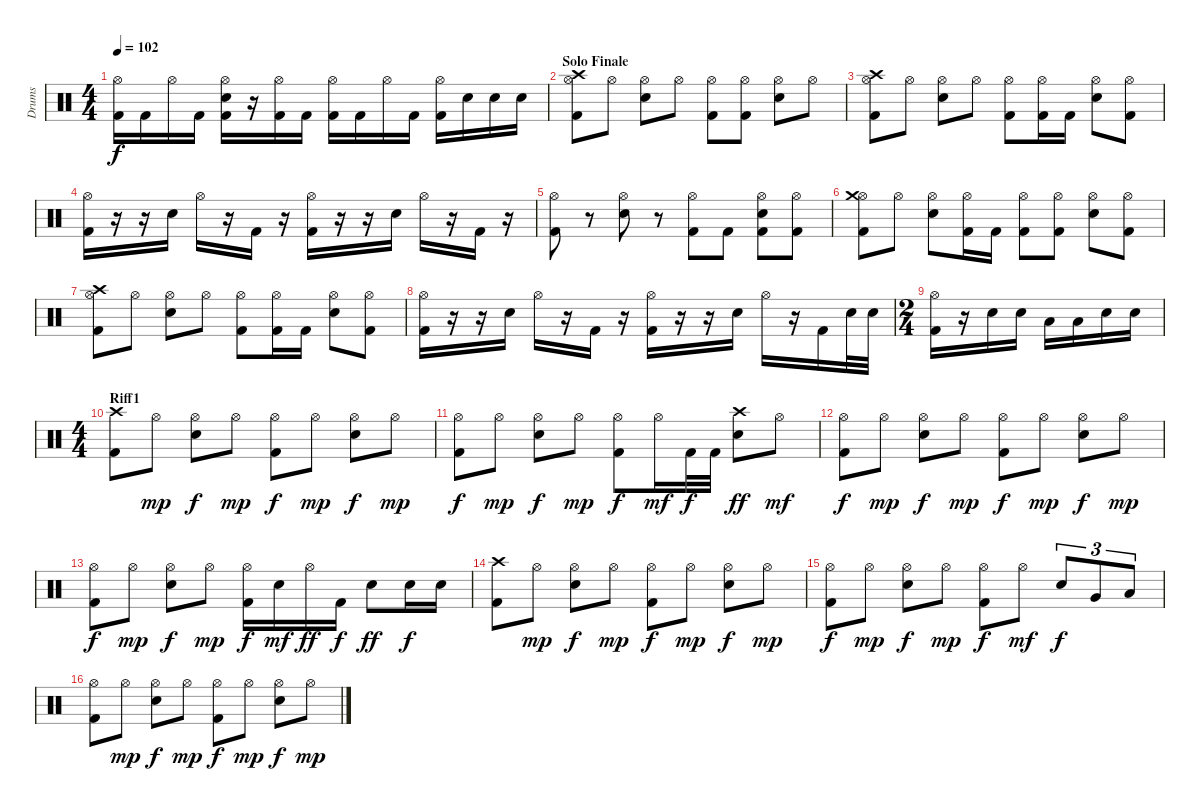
\track ("Drums" "Drums") {instrument percussion}
\staff {score}
\articulation defaults
\ts (4 4)
\tempo 102
\clef neutral
\ks c
("Kick (hit) 2" "Hi-Hat (open)").16{dy f} "Kick (hit) 2".16 "Hi-Hat (open)".16 "Kick (hit) 2".16 ("Kick (hit) 2" "Hi-Hat (open)" "Electric Snare (hit)").16 r.16 ("Kick (hit) 2" "Hi-Hat (open)").16 "Kick (hit) 2".16 ("Kick (hit) 2" "Hi-Hat (open)").16 "Kick (hit) 2".16 "Hi-Hat (open)".16 "Kick (hit) 2".16 ("Kick (hit) 2" "Hi-Hat (open)").16 "Electric Snare (hit)".16 "Electric Snare (hit)".16 "Electric Snare (hit)".16 |
\section ("" "Solo Finale")
("Kick (hit) 2" "Hi-Hat (open)" "Crash high (hit)").8 "Hi-Hat (open)".8 ("Hi-Hat (open)" "Electric Snare (hit)").8 "Hi-Hat (open)".8 ("Kick (hit) 2" "Hi-Hat (open)").8 ("Kick (hit) 2" "Hi-Hat (open)").8 ("Hi-Hat (open)" "Electric Snare (hit)").8 "Hi-Hat (open)".8 |
("Kick (hit) 2" "Hi-Hat (open)" "Crash high (hit)").8 "Hi-Hat (open)".8 ("Hi-Hat (open)" "Electric Snare (hit)").8 "Hi-Hat (open)".8 ("Kick (hit) 2" "Hi-Hat (open)").8 ("Kick (hit) 2" "Hi-Hat (open)").16 "Kick (hit) 2".16 ("Hi-Hat (open)" "Electric Snare (hit)").8 ("Kick (hit) 2" "Hi-Hat (open)").8 |
("Kick (hit) 2" "Hi-Hat (open)").16 r.16 r.16 "Electric Snare (hit)".16 "Hi-Hat (open)".16 r.16 "Kick (hit) 2".16 r.16 ("Kick (hit) 2" "Hi-Hat (open)").16 r.16 r.16 "Electric Snare (hit)".16 "Hi-Hat (open)".16 r.16 "Kick (hit) 2".16 r.16 |
("Kick (hit) 2" "Hi-Hat (open)").8 r.8 ("Hi-Hat (open)" "Electric Snare (hit)").8 r.8 ("Kick (hit) 2" "Hi-Hat (open)").8 "Kick (hit) 2".8 ("Kick (hit) 2" "Hi-Hat (open)" "Electric Snare (hit)").8 ("Kick (hit) 2" "Hi-Hat (open)").8 |
("Kick (hit) 2" "Hi-Hat (open)" "Crash medium (hit)").8 "Hi-Hat (open)".8 ("Hi-Hat (open)" "Electric Snare (hit)").8 ("Kick (hit) 2" "Hi-Hat (open)").16 "Kick (hit) 2".16 ("Kick (hit) 2" "Hi-Hat (open)").8 ("Kick (hit) 2" "Hi-Hat (open)").8 ("Hi-Hat (open)" "Electric Snare (hit)").8 ("Kick (hit) 2" "Hi-Hat (open)").8 |
("Kick (hit) 2" "Hi-Hat (open)" "Crash high (hit)").8 "Hi-Hat (open)".8 ("Hi-Hat (open)" "Electric Snare (hit)").8 "Hi-Hat (open)".8 ("Kick (hit) 2" "Hi-Hat (open)").8 ("Kick (hit) 2" "Hi-Hat (open)").16 "Kick (hit) 2".16 ("Hi-Hat (open)" "Electric Snare (hit)").8 ("Kick (hit) 2" "Hi-Hat (open)").8 |
("Kick (hit) 2" "Hi-Hat (open)").16 r.16 r.16 "Electric Snare (hit)".16 "Hi-Hat (open)".16 r.16 "Kick (hit) 2".16 r.16 ("Kick (hit) 2" "Hi-Hat (open)").16 r.16 r.16 "Electric Snare (hit)".16 "Hi-Hat (open)".16 r.16 "Kick (hit) 2".16 "Electric Snare (hit)".32 "Electric Snare (hit)".32 |
\ts (2 4)
("Kick (hit) 2" "Hi-Hat (open)").16 r.16 "Electric Snare (hit)".16 "Electric Snare (hit)".16 "Low Tom (hit)".16 "Low Tom (hit)".16 "Electric Snare (hit)".16 "Electric Snare (hit)".16 |
\ts (4 4)
\section ("" "Riff1")
("Kick (hit) 2" "Crash high (hit)").8 "Hi-Hat (open)".8{dy mp} ("Hi-Hat (open)" "Electric Snare (hit)").8{dy f} "Hi-Hat (open)".8{dy mp} ("Kick (hit) 2" "Hi-Hat (open)").8{dy f} "Hi-Hat (open)".8{dy mp} ("Hi-Hat (open)" "Electric Snare (hit)").8{dy f} "Hi-Hat (open)".8{dy mp} |
("Kick (hit) 2" "Hi-Hat (open)").8{dy f} "Hi-Hat (open)".8{dy mp} ("Hi-Hat (open)" "Electric Snare (hit)").8{dy f} "Hi-Hat (open)".8{dy mp} ("Kick (hit) 2" "Hi-Hat (open)").8{dy f} "Hi-Hat (open)".16{dy mf} "Kick (hit) 2".32{dy f} "Kick (hit) 2".32 ("Electric Snare (hit)" "Crash high (hit)").8{dy ff} "Hi-Hat (open)".8{dy mf} |
("Kick (hit) 2" "Hi-Hat (open)").8{dy f} "Hi-Hat (open)".8{dy mp} ("Hi-Hat (open)" "Electric Snare (hit)").8{dy f} "Hi-Hat (open)".8{dy mp} ("Kick (hit) 2" "Hi-Hat (open)").8{dy f} "Hi-Hat (open)".8{dy mp} ("Hi-Hat (open)" "Electric Snare (hit)").8{dy f} "Hi-Hat (open)".8{dy mp} |
("Kick (hit) 2" "Hi-Hat (open)").8{dy f} "Hi-Hat (open)".8{dy mp} ("Hi-Hat (open)" "Electric Snare (hit)").8{dy f} "Hi-Hat (open)".8{dy mp} ("Kick (hit) 2" "Hi-Hat (open)").16{dy f} "Electric Snare (hit)".16{dy mf} "Hi-Hat (open)".16{dy ff} "Kick (hit) 2".16{dy f} "Electric Snare (hit)".8{dy ff} "Electric Snare (hit)".16{dy f} "Electric Snare (hit)".16 |
("Kick (hit) 2" "Crash high (hit)").8 "Hi-Hat (open)".8{dy mp} ("Hi-Hat (open)" "Electric Snare (hit)").8{dy f} "Hi-Hat (open)".8{dy mp} ("Kick (hit) 2" "Hi-Hat (open)").8{dy f} "Hi-Hat (open)".8{dy mp} ("Hi-Hat (open)" "Electric Snare (hit)").8{dy f} "Hi-Hat (open)".8{dy mp} |
("Kick (hit) 2" "Hi-Hat (open)").8{dy f} "Hi-Hat (open)".8{dy mp} ("Hi-Hat (open)" "Electric Snare (hit)").8{dy f} "Hi-Hat (open)".8{dy mp} ("Kick (hit) 2" "Hi-Hat (open)").8{dy f} "Hi-Hat (open)".8{dy mf} "Electric Snare (hit)".8{tu (3 2) dy f} "Very Low Tom (hit)".8{tu (3 2)} "Low Tom (hit)".8{tu (3 2)} |
("Kick (hit) 2" "Hi-Hat (open)").8 "Hi-Hat (open)".8{dy mp} ("Hi-Hat (open)" "Electric Snare (hit)").8{dy f} "Hi-Hat (open)".8{dy mp} ("Kick (hit) 2" "Hi-Hat (open)").8{dy f} "Hi-Hat (open)".8{dy mp} ("Hi-Hat (open)" "Electric Snare (hit)").8{dy f} "Hi-Hat (open)".8{dy mp}
